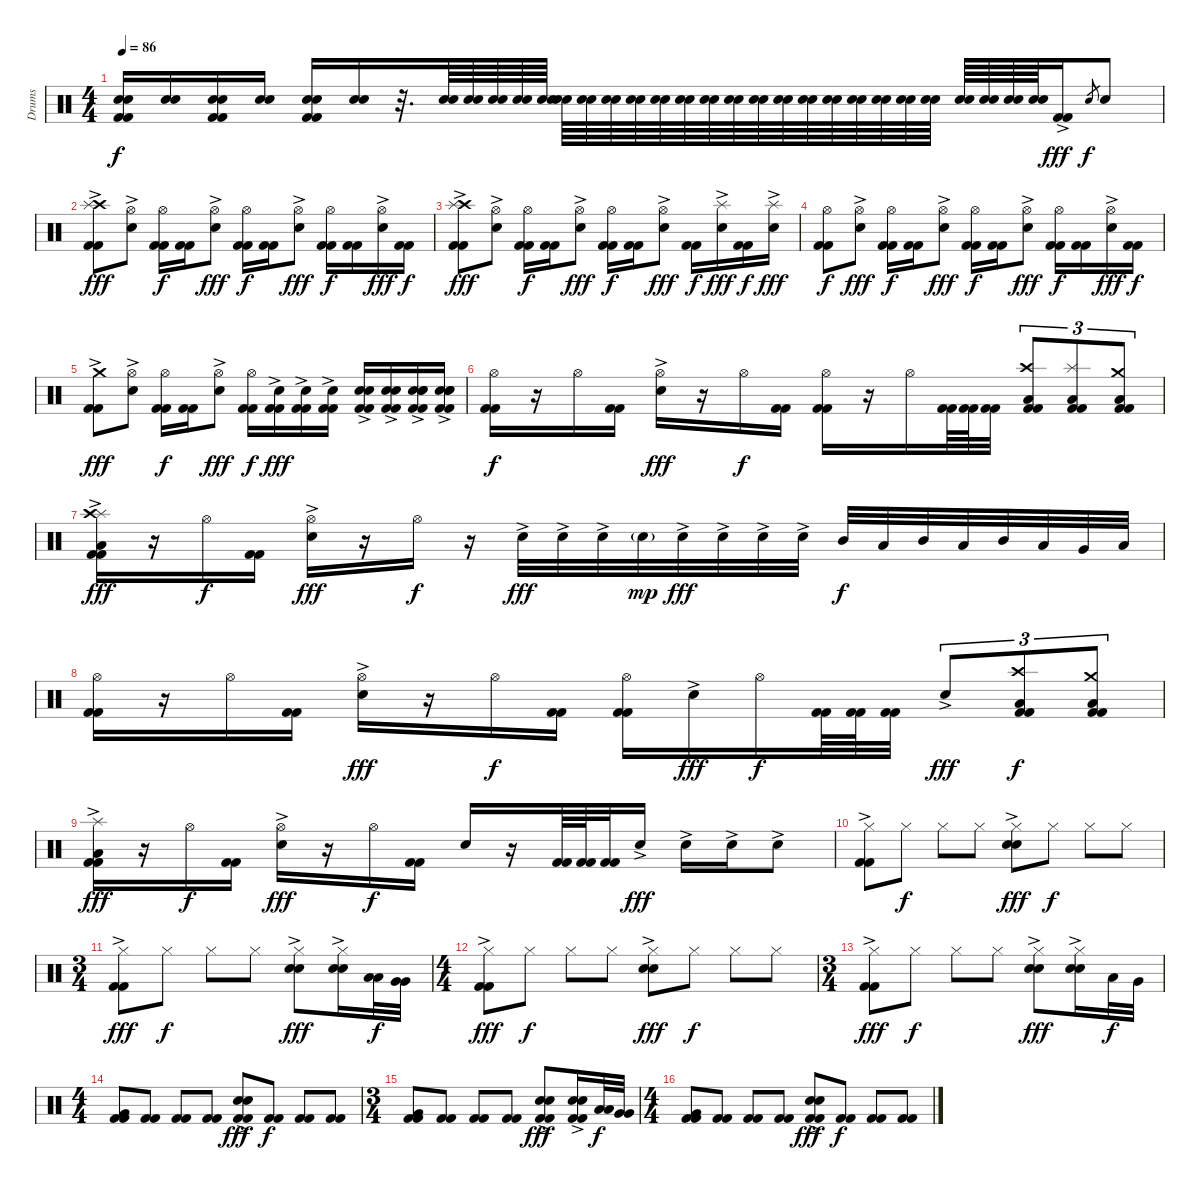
\track ("Drums" "Drums") {instrument percussion}
\staff {score}
\articulation defaults
\ts (4 4)
\tempo 86
\clef neutral
\ks c
("Electric Snare (hit)" "Electric Snare (hit)" "Kick (hit) 2" "Kick (hit) 2").16{dy f} ("Electric Snare (hit)" "Electric Snare (hit)").16 ("Electric Snare (hit)" "Electric Snare (hit)" "Kick (hit) 2" "Kick (hit) 2").16 ("Electric Snare (hit)" "Electric Snare (hit)").16 ("Electric Snare (hit)" "Electric Snare (hit)" "Kick (hit) 2" "Kick (hit) 2").16 ("Electric Snare (hit)" "Electric Snare (hit)").16 r.32{d} ("Electric Snare (hit)" "Electric Snare (hit)").64 ("Electric Snare (hit)" "Electric Snare (hit)").64 ("Electric Snare (hit)" "Electric Snare (hit)").64 ("Electric Snare (hit)" "Electric Snare (hit)").64 ("Electric Snare (hit)" "Electric Snare (hit)").64 ("Electric Snare (hit)" "Electric Snare (hit)").64 ("Electric Snare (hit)" "Electric Snare (hit)").64 ("Electric Snare (hit)" "Electric Snare (hit)").64 ("Electric Snare (hit)" "Electric Snare (hit)").64 ("Electric Snare (hit)" "Electric Snare (hit)").64 ("Electric Snare (hit)" "Electric Snare (hit)").64 ("Electric Snare (hit)" "Electric Snare (hit)").64 ("Electric Snare (hit)" "Electric Snare (hit)").64 ("Electric Snare (hit)" "Electric Snare (hit)").64 ("Electric Snare (hit)" "Electric Snare (hit)").64 ("Electric Snare (hit)" "Electric Snare (hit)").64 ("Electric Snare (hit)" "Electric Snare (hit)").64 ("Electric Snare (hit)" "Electric Snare (hit)").64 ("Electric Snare (hit)" "Electric Snare (hit)").64 ("Electric Snare (hit)" "Electric Snare (hit)").64 ("Electric Snare (hit)" "Electric Snare (hit)").64 ("Electric Snare (hit)" "Electric Snare (hit)").64 ("Electric Snare (hit)" "Electric Snare (hit)").64 ("Electric Snare (hit)" "Electric Snare (hit)").64 ("Electric Snare (hit)" "Electric Snare (hit)").64 ("Kick (hit) 2"{ac} "Kick (hit) 2").16{dy fff} "Electric Snare (hit)".8{gr dy f} "Electric Snare (hit)".8 |
("Crash high (hit)"{ac} "Splash (hit)" "Kick (hit) 2" "Kick (hit) 2").8{dy fff} ("Hi-Hat (open)" "Electric Snare (hit)"{ac}).8 ("Hi-Hat (open)" "Kick (hit) 2" "Kick (hit) 2").16{dy f} ("Kick (hit) 2" "Kick (hit) 2").16 ("Hi-Hat (open)" "Electric Snare (hit)"{ac}).8{dy fff} ("Hi-Hat (open)" "Kick (hit) 2" "Kick (hit) 2").16{dy f} ("Kick (hit) 2" "Kick (hit) 2").16 ("Hi-Hat (open)" "Electric Snare (hit)"{ac}).8{dy fff} ("Hi-Hat (open)" "Kick (hit) 2" "Kick (hit) 2").16{dy f} ("Kick (hit) 2" "Kick (hit) 2").16 ("Hi-Hat (open)" "Electric Snare (hit)"{ac}).16{dy fff} ("Kick (hit) 2" "Kick (hit) 2").16{dy f} |
("Crash high (hit)"{ac} "Splash (hit)" "Kick (hit) 2" "Kick (hit) 2").8{dy fff} ("Hi-Hat (open)" "Electric Snare (hit)"{ac}).8 ("Hi-Hat (open)" "Kick (hit) 2" "Kick (hit) 2").16{dy f} ("Kick (hit) 2" "Kick (hit) 2").16 ("Hi-Hat (open)" "Electric Snare (hit)"{ac}).8{dy fff} ("Hi-Hat (open)" "Kick (hit) 2" "Kick (hit) 2").16{dy f} ("Kick (hit) 2" "Kick (hit) 2").16 ("Hi-Hat (open)" "Electric Snare (hit)"{ac}).8{dy fff} ("Kick (hit) 2" "Kick (hit) 2").16{dy f} ("Splash (hit)" "Electric Snare (hit)"{ac}).16{dy fff} ("Kick (hit) 2" "Kick (hit) 2").16{dy f} ("Splash (hit)" "Electric Snare (hit)"{ac}).16{dy fff} |
("Hi-Hat (open)" "Kick (hit) 2" "Kick (hit) 2").8{dy f} ("Hi-Hat (open)" "Electric Snare (hit)"{ac}).8{dy fff} ("Hi-Hat (open)" "Kick (hit) 2" "Kick (hit) 2").16{dy f} ("Kick (hit) 2" "Kick (hit) 2").16 ("Hi-Hat (open)" "Electric Snare (hit)"{ac}).8{dy fff} ("Hi-Hat (open)" "Kick (hit) 2" "Kick (hit) 2").16{dy f} ("Kick (hit) 2" "Kick (hit) 2").16 ("Hi-Hat (open)" "Electric Snare (hit)"{ac}).8{dy fff} ("Hi-Hat (open)" "Kick (hit) 2" "Kick (hit) 2").16{dy f} ("Kick (hit) 2" "Kick (hit) 2").16 ("Hi-Hat (open)" "Electric Snare (hit)"{ac}).16{dy fff} ("Kick (hit) 2" "Kick (hit) 2").16{dy f} |
("Crash medium (hit)"{ac} "Kick (hit) 2" "Kick (hit) 2").8{dy fff} ("Hi-Hat (open)" "Electric Snare (hit)"{ac}).8 ("Hi-Hat (open)" "Kick (hit) 2" "Kick (hit) 2").16{dy f} ("Kick (hit) 2" "Kick (hit) 2").16 ("Hi-Hat (open)" "Electric Snare (hit)"{ac}).8{dy fff} ("Hi-Hat (open)" "Kick (hit) 2" "Kick (hit) 2").16{dy f} ("Electric Snare (hit)"{ac} "Kick (hit) 2" "Kick (hit) 2").16{dy fff} ("Electric Snare (hit)"{ac} "Kick (hit) 2" "Kick (hit) 2").16 ("Electric Snare (hit)"{ac} "Kick (hit) 2" "Kick (hit) 2").16 ("Electric Snare (hit)"{ac} "Electric Snare (hit)" "Kick (hit) 2" "Kick (hit) 2").16 ("Electric Snare (hit)"{ac} "Electric Snare (hit)" "Kick (hit) 2" "Kick (hit) 2").16 ("Electric Snare (hit)"{ac} "Electric Snare (hit)" "Electric Snare (hit)" "Kick (hit) 2"{ac} "Kick (hit) 2").16 ("Electric Snare (hit)"{ac} "Electric Snare (hit)"{ac} "Electric Snare (hit)" "Kick (hit) 2"{ac} "Kick (hit) 2").16 |
("Hi-Hat (open)" "Kick (hit) 2" "Kick (hit) 2").16{dy f} r.16 "Hi-Hat (open)".16 ("Kick (hit) 2" "Kick (hit) 2").16 ("Hi-Hat (open)" "Electric Snare (hit)"{ac}).16{dy fff} r.16 "Hi-Hat (open)".16{dy f} ("Kick (hit) 2" "Kick (hit) 2").16 ("Hi-Hat (open)" "Kick (hit) 2" "Kick (hit) 2").16 r.16 "Hi-Hat (open)".16 ("Kick (hit) 2" "Kick (hit) 2").64 ("Kick (hit) 2" "Kick (hit) 2").64 ("Kick (hit) 2" "Kick (hit) 2").32 ("Crash high (hit)" "Low Floor Tom (hit)" "Kick (hit) 2" "Kick (hit) 2").8{tu (3 2)} ("Splash (hit)" "Low Floor Tom (hit)" "Kick (hit) 2" "Kick (hit) 2").8{tu (3 2)} ("Crash medium (hit)" "Low Floor Tom (hit)" "Kick (hit) 2" "Kick (hit) 2").8{tu (3 2)} |
("Splash (hit)" "Crash high (hit)" "Low Floor Tom (hit)" "Kick (hit) 2" "Kick (hit) 2"{ac}).16{dy fff} r.16 "Hi-Hat (open)".16{dy f} ("Kick (hit) 2" "Kick (hit) 2").16 ("Hi-Hat (open)" "Electric Snare (hit)"{ac}).16{dy fff} r.16 "Hi-Hat (open)".16{dy f} r.16 "Electric Snare (hit)"{ac}.32{dy fff} "Electric Snare (hit)"{ac}.32 "Electric Snare (hit)"{ac}.32 "Electric Snare (hit)"{g}.32{dy mp} "Electric Snare (hit)"{ac}.32{dy fff} "Electric Snare (hit)"{ac}.32 "Electric Snare (hit)"{ac}.32 "Electric Snare (hit)"{ac}.32 "Mid Tom (hit)".32{dy f} "Low Tom (hit)".32 "Mid Tom (hit)".32 "Low Tom (hit)".32 "Mid Tom (hit)".32 "Low Tom (hit)".32 "Very Low Tom (hit)".32 "Low Tom (hit)".32 |
("Hi-Hat (open)" "Kick (hit) 2" "Kick (hit) 2").16 r.16 "Hi-Hat (open)".16 ("Kick (hit) 2" "Kick (hit) 2").16 ("Hi-Hat (open)" "Electric Snare (hit)"{ac}).16{dy fff} r.16 "Hi-Hat (open)".16{dy f} ("Kick (hit) 2" "Kick (hit) 2").16 ("Hi-Hat (open)" "Kick (hit) 2" "Kick (hit) 2").16 "Electric Snare (hit)"{ac}.16{dy fff} "Hi-Hat (open)".16{dy f} ("Kick (hit) 2" "Kick (hit) 2").64 ("Kick (hit) 2" "Kick (hit) 2").64 ("Kick (hit) 2" "Kick (hit) 2").32 "Electric Snare (hit)"{ac}.8{tu (3 2) dy fff} ("Crash high (hit)" "Low Floor Tom (hit)" "Kick (hit) 2" "Kick (hit) 2").8{tu (3 2) dy f} ("Crash medium (hit)" "Low Floor Tom (hit)" "Kick (hit) 2" "Kick (hit) 2").8{tu (3 2)} |
("Splash (hit)"{ac} "Low Floor Tom (hit)" "Kick (hit) 2" "Kick (hit) 2").16{dy fff} r.16 "Hi-Hat (open)".16{dy f} ("Kick (hit) 2" "Kick (hit) 2").16 ("Hi-Hat (open)" "Electric Snare (hit)"{ac}).16{dy fff} r.16 "Hi-Hat (open)".16{dy f} ("Kick (hit) 2" "Kick (hit) 2").16 "Electric Snare (hit)".16 r.16 ("Kick (hit) 2" "Kick (hit) 2").64 ("Kick (hit) 2" "Kick (hit) 2").64 ("Kick (hit) 2" "Kick (hit) 2").32 "Electric Snare (hit)"{ac}.16{dy fff} "Electric Snare (hit)"{ac}.16 "Electric Snare (hit)"{ac}.16 "Electric Snare (hit)"{ac}.8 |
("Hi-Hat (closed)" "Kick (hit) 2"{ac} "Kick (hit) 2"{ac}).8 "Hi-Hat (closed)".8{dy f} "Hi-Hat (closed)".8 "Hi-Hat (closed)".8 ("Hi-Hat (closed)" "Electric Snare (hit)"{ac} "Electric Snare (hit)").8{dy fff} "Hi-Hat (closed)".8{dy f} "Hi-Hat (closed)".8 "Hi-Hat (closed)".8 |
\ts (3 4)
("Hi-Hat (closed)" "Kick (hit) 2"{ac} "Kick (hit) 2"{ac}).8{dy fff} "Hi-Hat (closed)".8{dy f} "Hi-Hat (closed)".8 "Hi-Hat (closed)".8 ("Hi-Hat (closed)" "Electric Snare (hit)"{ac} "Electric Snare (hit)").8{dy fff} ("Hi-Hat (closed)" "Electric Snare (hit)"{ac} "Electric Snare (hit)").16 ("Low Tom (hit)" "Low Tom (hit)").32{dy f} ("Very Low Tom (hit)" "Very Low Tom (hit)").32 |
\ts (4 4)
("Hi-Hat (closed)" "Kick (hit) 2"{ac} "Kick (hit) 2"{ac}).8{dy fff} "Hi-Hat (closed)".8{dy f} "Hi-Hat (closed)".8 "Hi-Hat (closed)".8 ("Hi-Hat (closed)"{ac} "Electric Snare (hit)"{ac} "Electric Snare (hit)").8{dy fff} "Hi-Hat (closed)".8{dy f} "Hi-Hat (closed)".8 "Hi-Hat (closed)".8 |
\ts (3 4)
("Hi-Hat (closed)" "Kick (hit) 2"{ac} "Kick (hit) 2"{ac}).8{dy fff} "Hi-Hat (closed)".8{dy f} "Hi-Hat (closed)".8 "Hi-Hat (closed)".8 ("Hi-Hat (closed)"{ac} "Electric Snare (hit)"{ac} "Electric Snare (hit)").8{dy fff} ("Hi-Hat (closed)"{ac} "Electric Snare (hit)"{ac} "Electric Snare (hit)").16 "Low Tom (hit)".32{dy f} "Very Low Tom (hit)".32 |
\ts (4 4)
("Very Low Tom (hit)" "Kick (hit) 2" "Kick (hit) 2").8 ("Kick (hit) 2" "Kick (hit) 2").8 ("Kick (hit) 2" "Kick (hit) 2").8 ("Kick (hit) 2" "Kick (hit) 2").8 ("Electric Snare (hit)"{ac} "Electric Snare (hit)"{ac} "Kick (hit) 2" "Kick (hit) 2").8{dy fff} ("Kick (hit) 2" "Kick (hit) 2").8{dy f} ("Kick (hit) 2" "Kick (hit) 2").8 ("Kick (hit) 2" "Kick (hit) 2").8 |
\ts (3 4)
("Very Low Tom (hit)" "Kick (hit) 2" "Kick (hit) 2").8 ("Kick (hit) 2" "Kick (hit) 2").8 ("Kick (hit) 2" "Kick (hit) 2").8 ("Kick (hit) 2" "Kick (hit) 2").8 ("Electric Snare (hit)"{ac} "Electric Snare (hit)"{ac} "Kick (hit) 2" "Kick (hit) 2").8{dy fff} ("Electric Snare (hit)"{ac} "Electric Snare (hit)"{ac} "Kick (hit) 2" "Kick (hit) 2").16 ("Low Tom (hit)" "Low Tom (hit)").32{dy f} ("Very Low Tom (hit)" "Very Low Tom (hit)").32 |
\ts (4 4)
("Very Low Tom (hit)" "Kick (hit) 2" "Kick (hit) 2").8 ("Kick (hit) 2" "Kick (hit) 2").8 ("Kick (hit) 2" "Kick (hit) 2").8 ("Kick (hit) 2" "Kick (hit) 2").8 ("Electric Snare (hit)"{ac} "Electric Snare (hit)"{ac} "Kick (hit) 2" "Kick (hit) 2").8{dy fff} ("Kick (hit) 2" "Kick (hit) 2").8{dy f} ("Kick (hit) 2" "Kick (hit) 2").8 ("Kick (hit) 2" "Kick (hit) 2").8
